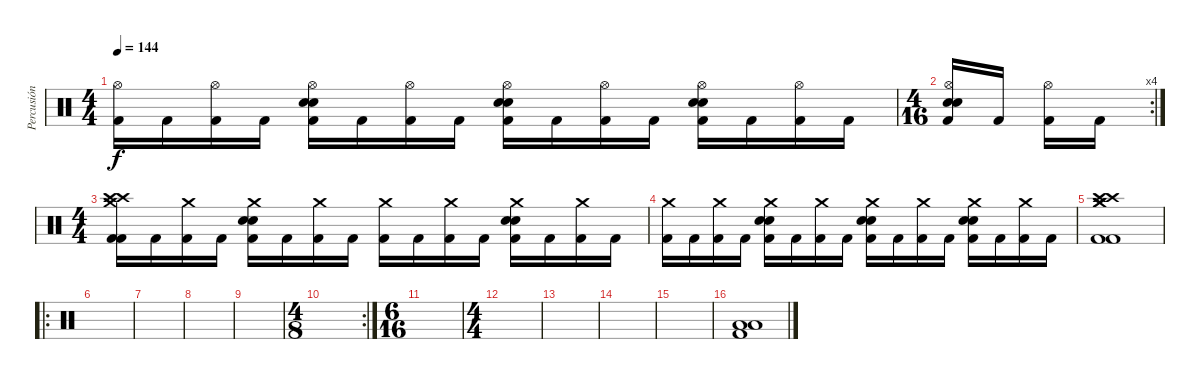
\track ("Percusión" "Percusión") {instrument percussion}
\staff {score}
\articulation defaults
\ts (4 4)
\tempo 144
\clef neutral
\ks c
("Kick (hit) 2" "Hi-Hat (open)").16{dy f} "Kick (hit) 2".16 ("Kick (hit) 2" "Hi-Hat (open)").16 "Kick (hit) 2".16 ("Kick (hit) 2" "Hi-Hat (open)" "Electric Snare (hit)" "Electric Snare (hit)").16 "Kick (hit) 2".16 ("Kick (hit) 2" "Hi-Hat (open)").16 "Kick (hit) 2".16 ("Kick (hit) 2" "Hi-Hat (open)" "Electric Snare (hit)" "Electric Snare (hit)").16 "Kick (hit) 2".16 ("Kick (hit) 2" "Hi-Hat (open)").16 "Kick (hit) 2".16 ("Kick (hit) 2" "Hi-Hat (open)" "Electric Snare (hit)" "Electric Snare (hit)").16 "Kick (hit) 2".16 ("Kick (hit) 2" "Hi-Hat (open)").16 "Kick (hit) 2".16 |
\rc 4
\ts (4 16)
("Kick (hit) 2" "Hi-Hat (open)" "Electric Snare (hit)" "Electric Snare (hit)").16 "Kick (hit) 2".16 ("Kick (hit) 2" "Hi-Hat (open)").16 "Kick (hit) 2".16 |
\ts (4 4)
("Kick (hit) 2" "Kick (hit) 2" "Crash medium (hit)" "Crash high (hit)" "Crash high (hit)").16 "Kick (hit) 2".16 ("Kick (hit) 2" "Crash medium (hit)").16 "Kick (hit) 2".16 ("Kick (hit) 2" "Crash medium (hit)" "Electric Snare (hit)" "Electric Snare (hit)").16 "Kick (hit) 2".16 ("Kick (hit) 2" "Crash medium (hit)").16 "Kick (hit) 2".16 ("Kick (hit) 2" "Crash medium (hit)").16 "Kick (hit) 2".16 ("Kick (hit) 2" "Crash medium (hit)").16 "Kick (hit) 2".16 ("Kick (hit) 2" "Crash medium (hit)" "Electric Snare (hit)" "Electric Snare (hit)").16 "Kick (hit) 2".16 ("Kick (hit) 2" "Crash medium (hit)").16 "Kick (hit) 2".16 |
("Kick (hit) 2" "Crash medium (hit)").16 "Kick (hit) 2".16 ("Kick (hit) 2" "Crash medium (hit)").16 "Kick (hit) 2".16 ("Kick (hit) 2" "Crash medium (hit)" "Electric Snare (hit)" "Electric Snare (hit)").16 "Kick (hit) 2".16 ("Kick (hit) 2" "Crash medium (hit)").16 "Kick (hit) 2".16 ("Kick (hit) 2" "Crash medium (hit)" "Electric Snare (hit)" "Electric Snare (hit)").16 "Kick (hit) 2".16 ("Kick (hit) 2" "Crash medium (hit)").16 "Kick (hit) 2".16 ("Kick (hit) 2" "Crash medium (hit)" "Electric Snare (hit)" "Electric Snare (hit)").16 "Kick (hit) 2".16 ("Kick (hit) 2" "Crash medium (hit)").16 "Kick (hit) 2".16 |
("Kick (hit) 2" "Kick (hit) 2" "Crash high (hit)" "Crash high (hit)" "Crash medium (hit)" "Crash medium (hit)").1 |
\ro
|
|
|
|
\rc 2
\ts (4 8)
|
\ts (6 16)
|
\ts (4 4)
|
|
|
|
("Kick (hit) 2" "Low Tom (hit)" "Low Tom (hit)").1
